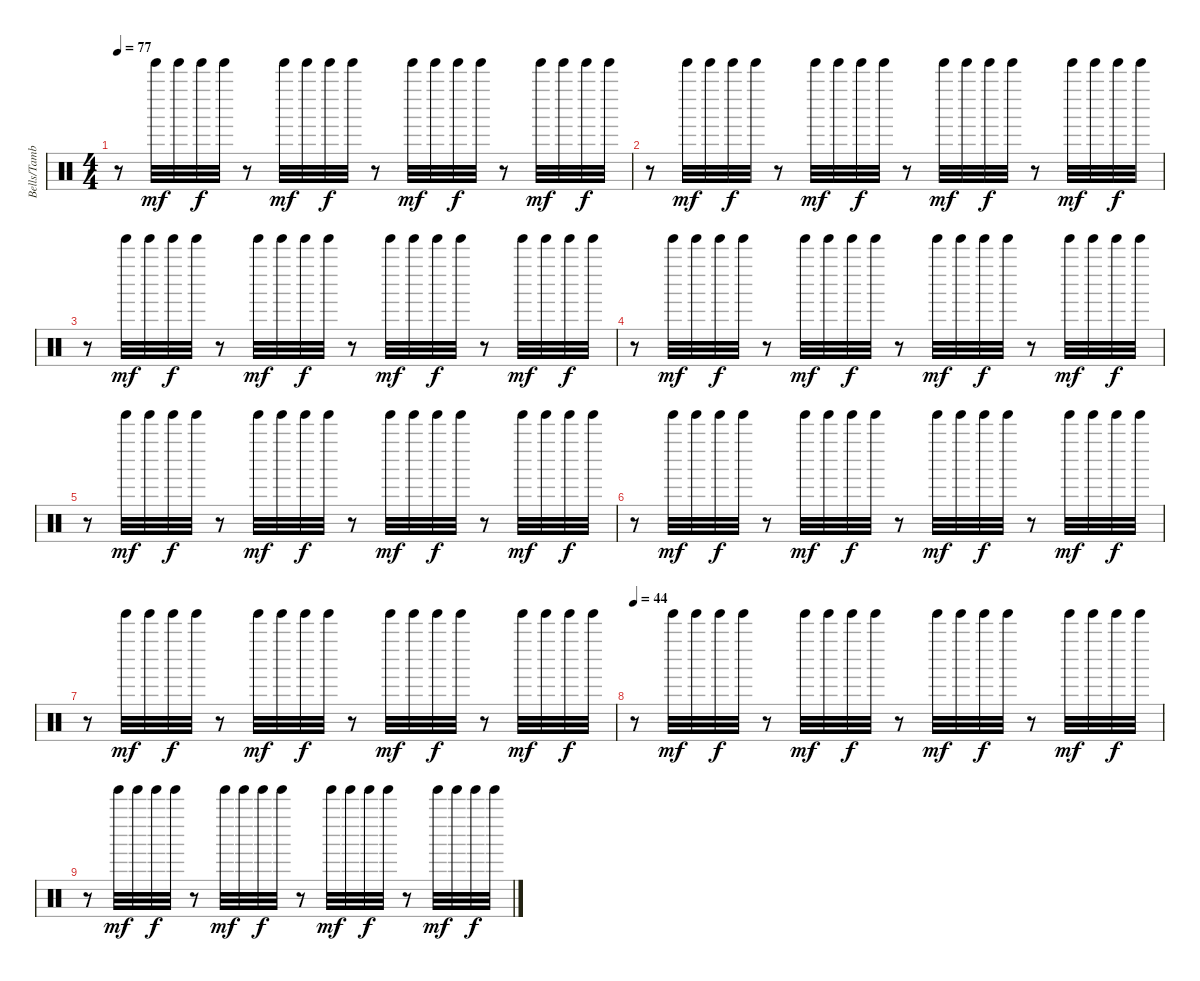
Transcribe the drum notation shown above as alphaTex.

\track ("Bells/Tambo" "Bells/Tamb") {instrument percussion}
\staff {score}
\articulation defaults
\ts (4 4)
\tempo 77
\clef neutral
\ks c
r.8{dy f} "Tinkle Bell (hit)".32{dy mf} "Tinkle Bell (hit)".32 "Tinkle Bell (hit)".32{dy f} "Tinkle Bell (hit)".32 r.8 "Tinkle Bell (hit)".32{dy mf} "Tinkle Bell (hit)".32 "Tinkle Bell (hit)".32{dy f} "Tinkle Bell (hit)".32 r.8 "Tinkle Bell (hit)".32{dy mf} "Tinkle Bell (hit)".32 "Tinkle Bell (hit)".32{dy f} "Tinkle Bell (hit)".32 r.8 "Tinkle Bell (hit)".32{dy mf} "Tinkle Bell (hit)".32 "Tinkle Bell (hit)".32{dy f} "Tinkle Bell (hit)".32 |
r.8 "Tinkle Bell (hit)".32{dy mf} "Tinkle Bell (hit)".32 "Tinkle Bell (hit)".32{dy f} "Tinkle Bell (hit)".32 r.8 "Tinkle Bell (hit)".32{dy mf} "Tinkle Bell (hit)".32 "Tinkle Bell (hit)".32{dy f} "Tinkle Bell (hit)".32 r.8 "Tinkle Bell (hit)".32{dy mf} "Tinkle Bell (hit)".32 "Tinkle Bell (hit)".32{dy f} "Tinkle Bell (hit)".32 r.8 "Tinkle Bell (hit)".32{dy mf} "Tinkle Bell (hit)".32 "Tinkle Bell (hit)".32{dy f} "Tinkle Bell (hit)".32 |
r.8 "Tinkle Bell (hit)".32{dy mf} "Tinkle Bell (hit)".32 "Tinkle Bell (hit)".32{dy f} "Tinkle Bell (hit)".32 r.8 "Tinkle Bell (hit)".32{dy mf} "Tinkle Bell (hit)".32 "Tinkle Bell (hit)".32{dy f} "Tinkle Bell (hit)".32 r.8 "Tinkle Bell (hit)".32{dy mf} "Tinkle Bell (hit)".32 "Tinkle Bell (hit)".32{dy f} "Tinkle Bell (hit)".32 r.8 "Tinkle Bell (hit)".32{dy mf} "Tinkle Bell (hit)".32 "Tinkle Bell (hit)".32{dy f} "Tinkle Bell (hit)".32 |
r.8 "Tinkle Bell (hit)".32{dy mf} "Tinkle Bell (hit)".32 "Tinkle Bell (hit)".32{dy f} "Tinkle Bell (hit)".32 r.8 "Tinkle Bell (hit)".32{dy mf} "Tinkle Bell (hit)".32 "Tinkle Bell (hit)".32{dy f} "Tinkle Bell (hit)".32 r.8 "Tinkle Bell (hit)".32{dy mf} "Tinkle Bell (hit)".32 "Tinkle Bell (hit)".32{dy f} "Tinkle Bell (hit)".32 r.8 "Tinkle Bell (hit)".32{dy mf} "Tinkle Bell (hit)".32 "Tinkle Bell (hit)".32{dy f} "Tinkle Bell (hit)".32 |
r.8 "Tinkle Bell (hit)".32{dy mf} "Tinkle Bell (hit)".32 "Tinkle Bell (hit)".32{dy f} "Tinkle Bell (hit)".32 r.8 "Tinkle Bell (hit)".32{dy mf} "Tinkle Bell (hit)".32 "Tinkle Bell (hit)".32{dy f} "Tinkle Bell (hit)".32 r.8 "Tinkle Bell (hit)".32{dy mf} "Tinkle Bell (hit)".32 "Tinkle Bell (hit)".32{dy f} "Tinkle Bell (hit)".32 r.8 "Tinkle Bell (hit)".32{dy mf} "Tinkle Bell (hit)".32 "Tinkle Bell (hit)".32{dy f} "Tinkle Bell (hit)".32 |
r.8 "Tinkle Bell (hit)".32{dy mf} "Tinkle Bell (hit)".32 "Tinkle Bell (hit)".32{dy f} "Tinkle Bell (hit)".32 r.8 "Tinkle Bell (hit)".32{dy mf} "Tinkle Bell (hit)".32 "Tinkle Bell (hit)".32{dy f} "Tinkle Bell (hit)".32 r.8 "Tinkle Bell (hit)".32{dy mf} "Tinkle Bell (hit)".32 "Tinkle Bell (hit)".32{dy f} "Tinkle Bell (hit)".32 r.8 "Tinkle Bell (hit)".32{dy mf} "Tinkle Bell (hit)".32 "Tinkle Bell (hit)".32{dy f} "Tinkle Bell (hit)".32 |
r.8 "Tinkle Bell (hit)".32{dy mf} "Tinkle Bell (hit)".32 "Tinkle Bell (hit)".32{dy f} "Tinkle Bell (hit)".32 r.8 "Tinkle Bell (hit)".32{dy mf} "Tinkle Bell (hit)".32 "Tinkle Bell (hit)".32{dy f} "Tinkle Bell (hit)".32 r.8 "Tinkle Bell (hit)".32{dy mf} "Tinkle Bell (hit)".32 "Tinkle Bell (hit)".32{dy f} "Tinkle Bell (hit)".32 r.8 "Tinkle Bell (hit)".32{dy mf} "Tinkle Bell (hit)".32 "Tinkle Bell (hit)".32{dy f} "Tinkle Bell (hit)".32 |
\tempo 44
r.8 "Tinkle Bell (hit)".32{dy mf} "Tinkle Bell (hit)".32 "Tinkle Bell (hit)".32{dy f} "Tinkle Bell (hit)".32 r.8 "Tinkle Bell (hit)".32{dy mf} "Tinkle Bell (hit)".32 "Tinkle Bell (hit)".32{dy f} "Tinkle Bell (hit)".32 r.8 "Tinkle Bell (hit)".32{dy mf} "Tinkle Bell (hit)".32 "Tinkle Bell (hit)".32{dy f} "Tinkle Bell (hit)".32 r.8 "Tinkle Bell (hit)".32{dy mf} "Tinkle Bell (hit)".32 "Tinkle Bell (hit)".32{dy f} "Tinkle Bell (hit)".32 |
r.8 "Tinkle Bell (hit)".32{dy mf} "Tinkle Bell (hit)".32 "Tinkle Bell (hit)".32{dy f} "Tinkle Bell (hit)".32 r.8 "Tinkle Bell (hit)".32{dy mf} "Tinkle Bell (hit)".32 "Tinkle Bell (hit)".32{dy f} "Tinkle Bell (hit)".32 r.8 "Tinkle Bell (hit)".32{dy mf} "Tinkle Bell (hit)".32 "Tinkle Bell (hit)".32{dy f} "Tinkle Bell (hit)".32 r.8 "Tinkle Bell (hit)".32{dy mf} "Tinkle Bell (hit)".32 "Tinkle Bell (hit)".32{dy f} "Tinkle Bell (hit)".32
